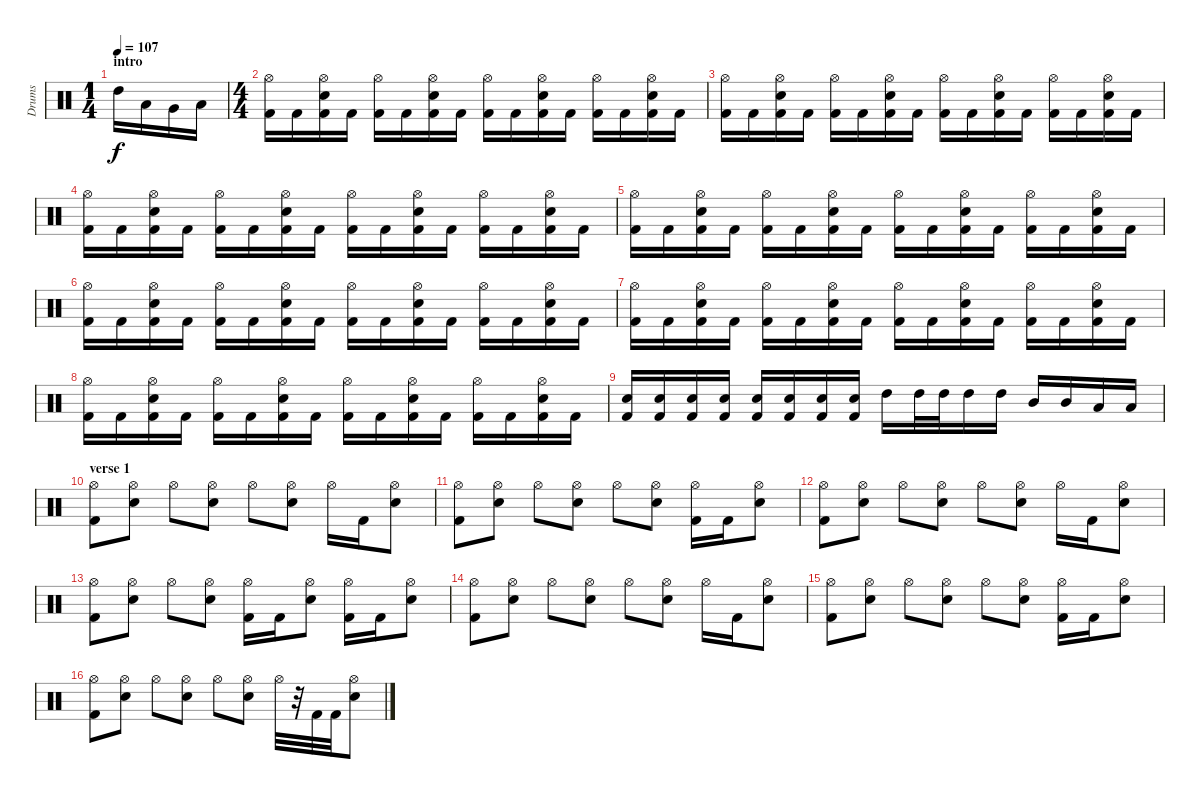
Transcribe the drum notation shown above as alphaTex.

\track ("Drums" "Drums") {instrument percussion}
\staff {score}
\articulation defaults
\ts (1 4)
\section ("" "intro")
\tempo 107
\clef neutral
\ks c "High Tom (hit)".16{dy f} "Low Tom (hit)".16 "Very Low Tom (hit)".16 "Low Floor Tom (hit)".16
|
\ts (4 4)
("Hi-Hat (open)" "Kick (hit) 2").16 "Kick (hit) 2".16 ("Hi-Hat (open)" "Snare (hit) 2" "Kick (hit) 2").16 "Kick (hit) 2".16 ("Hi-Hat (open)" "Kick (hit) 2").16 "Kick (hit) 2".16 ("Hi-Hat (open)" "Snare (hit) 2" "Kick (hit) 2").16 "Kick (hit) 2".16 ("Hi-Hat (open)" "Kick (hit) 2").16 "Kick (hit) 2".16 ("Hi-Hat (open)" "Snare (hit) 2" "Kick (hit) 2").16 "Kick (hit) 2".16 ("Hi-Hat (open)" "Kick (hit) 2").16 "Kick (hit) 2".16 ("Hi-Hat (open)" "Snare (hit) 2" "Kick (hit) 2").16 "Kick (hit) 2".16 |
("Hi-Hat (open)" "Kick (hit) 2").16 "Kick (hit) 2".16 ("Hi-Hat (open)" "Snare (hit) 2" "Kick (hit) 2").16 "Kick (hit) 2".16 ("Hi-Hat (open)" "Kick (hit) 2").16 "Kick (hit) 2".16 ("Hi-Hat (open)" "Snare (hit) 2" "Kick (hit) 2").16 "Kick (hit) 2".16 ("Hi-Hat (open)" "Kick (hit) 2").16 "Kick (hit) 2".16 ("Hi-Hat (open)" "Snare (hit) 2" "Kick (hit) 2").16 "Kick (hit) 2".16 ("Hi-Hat (open)" "Kick (hit) 2").16 "Kick (hit) 2".16 ("Hi-Hat (open)" "Snare (hit) 2" "Kick (hit) 2").16 "Kick (hit) 2".16 |
("Hi-Hat (open)" "Kick (hit) 2").16 "Kick (hit) 2".16 ("Hi-Hat (open)" "Snare (hit) 2" "Kick (hit) 2").16 "Kick (hit) 2".16 ("Hi-Hat (open)" "Kick (hit) 2").16 "Kick (hit) 2".16 ("Hi-Hat (open)" "Snare (hit) 2" "Kick (hit) 2").16 "Kick (hit) 2".16 ("Hi-Hat (open)" "Kick (hit) 2").16 "Kick (hit) 2".16 ("Hi-Hat (open)" "Snare (hit) 2" "Kick (hit) 2").16 "Kick (hit) 2".16 ("Hi-Hat (open)" "Kick (hit) 2").16 "Kick (hit) 2".16 ("Hi-Hat (open)" "Snare (hit) 2" "Kick (hit) 2").16 "Kick (hit) 2".16 |
("Hi-Hat (open)" "Kick (hit) 2").16 "Kick (hit) 2".16 ("Hi-Hat (open)" "Snare (hit) 2" "Kick (hit) 2").16 "Kick (hit) 2".16 ("Hi-Hat (open)" "Kick (hit) 2").16 "Kick (hit) 2".16 ("Hi-Hat (open)" "Snare (hit) 2" "Kick (hit) 2").16 "Kick (hit) 2".16 ("Hi-Hat (open)" "Kick (hit) 2").16 "Kick (hit) 2".16 ("Hi-Hat (open)" "Snare (hit) 2" "Kick (hit) 2").16 "Kick (hit) 2".16 ("Hi-Hat (open)" "Kick (hit) 2").16 "Kick (hit) 2".16 ("Hi-Hat (open)" "Snare (hit) 2" "Kick (hit) 2").16 "Kick (hit) 2".16 |
("Hi-Hat (open)" "Kick (hit) 2").16 "Kick (hit) 2".16 ("Hi-Hat (open)" "Snare (hit) 2" "Kick (hit) 2").16 "Kick (hit) 2".16 ("Hi-Hat (open)" "Kick (hit) 2").16 "Kick (hit) 2".16 ("Hi-Hat (open)" "Snare (hit) 2" "Kick (hit) 2").16 "Kick (hit) 2".16 ("Hi-Hat (open)" "Kick (hit) 2").16 "Kick (hit) 2".16 ("Hi-Hat (open)" "Snare (hit) 2" "Kick (hit) 2").16 "Kick (hit) 2".16 ("Hi-Hat (open)" "Kick (hit) 2").16 "Kick (hit) 2".16 ("Hi-Hat (open)" "Snare (hit) 2" "Kick (hit) 2").16 "Kick (hit) 2".16 |
("Hi-Hat (open)" "Kick (hit) 2").16 "Kick (hit) 2".16 ("Hi-Hat (open)" "Snare (hit) 2" "Kick (hit) 2").16 "Kick (hit) 2".16 ("Hi-Hat (open)" "Kick (hit) 2").16 "Kick (hit) 2".16 ("Hi-Hat (open)" "Snare (hit) 2" "Kick (hit) 2").16 "Kick (hit) 2".16 ("Hi-Hat (open)" "Kick (hit) 2").16 "Kick (hit) 2".16 ("Hi-Hat (open)" "Snare (hit) 2" "Kick (hit) 2").16 "Kick (hit) 2".16 ("Hi-Hat (open)" "Kick (hit) 2").16 "Kick (hit) 2".16 ("Hi-Hat (open)" "Snare (hit) 2" "Kick (hit) 2").16 "Kick (hit) 2".16 |
("Hi-Hat (open)" "Kick (hit) 2").16 "Kick (hit) 2".16 ("Hi-Hat (open)" "Snare (hit) 2" "Kick (hit) 2").16 "Kick (hit) 2".16 ("Hi-Hat (open)" "Kick (hit) 2").16 "Kick (hit) 2".16 ("Hi-Hat (open)" "Snare (hit) 2" "Kick (hit) 2").16 "Kick (hit) 2".16 ("Hi-Hat (open)" "Kick (hit) 2").16 "Kick (hit) 2".16 ("Hi-Hat (open)" "Snare (hit) 2" "Kick (hit) 2").16 "Kick (hit) 2".16 ("Hi-Hat (open)" "Kick (hit) 2").16 "Kick (hit) 2".16 ("Hi-Hat (open)" "Snare (hit) 2" "Kick (hit) 2").16 "Kick (hit) 2".16 |
("Snare (hit) 2" "Kick (hit) 2").16 ("Snare (hit) 2" "Kick (hit) 2").16 ("Snare (hit) 2" "Kick (hit) 2").16 ("Snare (hit) 2" "Kick (hit) 2").16 ("Snare (hit) 2" "Kick (hit) 2").16 ("Snare (hit) 2" "Kick (hit) 2").16 ("Snare (hit) 2" "Kick (hit) 2").16 ("Snare (hit) 2" "Kick (hit) 2").16 "High Tom (hit)".16 "High Tom (hit)".32 "High Tom (hit)".32 "High Tom (hit)".16 "High Tom (hit)".16 "Mid Tom (hit)".16 "Mid Tom (hit)".16 "Low Tom (hit)".16 "Low Tom (hit)".16 |
\section ("" "verse 1")
("Hi-Hat (open)" "Kick (hit) 2").8 ("Hi-Hat (open)" "Snare (hit) 2").8 "Hi-Hat (open)".8 ("Hi-Hat (open)" "Snare (hit) 2").8 "Hi-Hat (open)".8 ("Hi-Hat (open)" "Snare (hit) 2").8 "Hi-Hat (open)".16 "Kick (hit) 2".16 ("Hi-Hat (open)" "Snare (hit) 2").8 |
("Hi-Hat (open)" "Kick (hit) 2").8 ("Hi-Hat (open)" "Snare (hit) 2").8 "Hi-Hat (open)".8 ("Hi-Hat (open)" "Snare (hit) 2").8 "Hi-Hat (open)".8 ("Hi-Hat (open)" "Snare (hit) 2").8 ("Hi-Hat (open)" "Kick (hit) 2").16 "Kick (hit) 2".16 ("Hi-Hat (open)" "Snare (hit) 2").8 |
("Hi-Hat (open)" "Kick (hit) 2").8 ("Hi-Hat (open)" "Snare (hit) 2").8 "Hi-Hat (open)".8 ("Hi-Hat (open)" "Snare (hit) 2").8 "Hi-Hat (open)".8 ("Hi-Hat (open)" "Snare (hit) 2").8 "Hi-Hat (open)".16 "Kick (hit) 2".16 ("Hi-Hat (open)" "Snare (hit) 2").8 |
("Hi-Hat (open)" "Kick (hit) 2").8 ("Hi-Hat (open)" "Snare (hit) 2").8 "Hi-Hat (open)".8 ("Hi-Hat (open)" "Snare (hit) 2").8 ("Hi-Hat (open)" "Kick (hit) 2").16 "Kick (hit) 2".16 ("Hi-Hat (open)" "Snare (hit) 2").8 ("Hi-Hat (open)" "Kick (hit) 2").16 "Kick (hit) 2".16 ("Hi-Hat (open)" "Snare (hit) 2").8 |
("Hi-Hat (open)" "Kick (hit) 2").8 ("Hi-Hat (open)" "Snare (hit) 2").8 "Hi-Hat (open)".8 ("Hi-Hat (open)" "Snare (hit) 2").8 "Hi-Hat (open)".8 ("Hi-Hat (open)" "Snare (hit) 2").8 "Hi-Hat (open)".16 "Kick (hit) 2".16 ("Hi-Hat (open)" "Snare (hit) 2").8 |
("Hi-Hat (open)" "Kick (hit) 2").8 ("Hi-Hat (open)" "Snare (hit) 2").8 "Hi-Hat (open)".8 ("Hi-Hat (open)" "Snare (hit) 2").8 "Hi-Hat (open)".8 ("Hi-Hat (open)" "Snare (hit) 2").8 ("Hi-Hat (open)" "Kick (hit) 2").16 "Kick (hit) 2".16 ("Hi-Hat (open)" "Snare (hit) 2").8 |
("Hi-Hat (open)" "Kick (hit) 2").8 ("Hi-Hat (open)" "Snare (hit) 2").8 "Hi-Hat (open)".8 ("Hi-Hat (open)" "Snare (hit) 2").8 "Hi-Hat (open)".8 ("Hi-Hat (open)" "Snare (hit) 2").8 "Hi-Hat (open)".32 r.32 "Kick (hit) 2".32 "Kick (hit) 2".32 ("Hi-Hat (open)" "Snare (hit) 2").8
